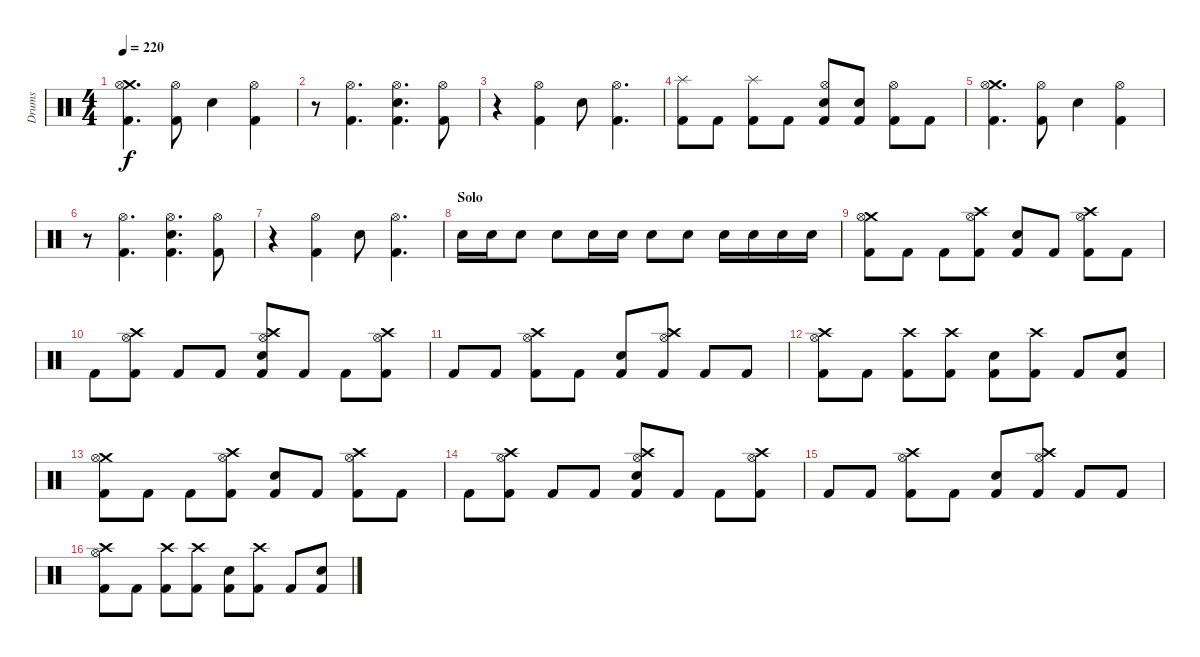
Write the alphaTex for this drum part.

\bracketExtendMode groupsimilarinstruments
\otherSystemsTrackNameOrientation horizontal
\track ("Drumkit" "Drums") {instrument percussion}
\staff {score}
\articulation defaults
\ts (4 4)
\tempo 220
\clef neutral
\ks c
("Crash medium (hit)" "Hi-Hat (open)" "Kick (hit) 2").4{d dy f beam Down} ("Hi-Hat (open)" "Kick (hit) 2").8{beam Down} "Snare (hit) 2".4{beam Down} ("Hi-Hat (open)" "Kick (hit) 2").4{beam Down} |
r.8{beam Down} ("Hi-Hat (open)" "Kick (hit) 2").4{d beam Down} ("Hi-Hat (open)" "Snare (hit) 2" "Kick (hit) 2").4{d beam Down} ("Hi-Hat (open)" "Kick (hit) 2").8{beam Down} |
r.4{beam Down} ("Hi-Hat (open)" "Kick (hit) 2").4{beam Down} "Snare (hit) 2".8{beam Down} ("Hi-Hat (open)" "Kick (hit) 2").4{d beam Down} |
("Splash (hit)" "Kick (hit) 2").8{beam Down} "Kick (hit) 2".8{beam Down} ("Splash (hit)" "Kick (hit) 2").8{beam Down} "Kick (hit) 2".8{beam Down} ("Hi-Hat (open)" "Snare (hit) 2" "Kick (hit) 2").8{beam Up} ("Snare (hit) 2" "Kick (hit) 2").8{beam Up} ("Hi-Hat (open)" "Kick (hit) 2").8{beam Down} "Kick (hit) 2".8{beam Down} |
("Crash medium (hit)" "Hi-Hat (open)" "Kick (hit) 2").4{d beam Down} ("Hi-Hat (open)" "Kick (hit) 2").8{beam Down} "Snare (hit) 2".4{beam Down} ("Hi-Hat (open)" "Kick (hit) 2").4{beam Down} |
r.8{beam Down} ("Hi-Hat (open)" "Kick (hit) 2").4{d beam Down} ("Hi-Hat (open)" "Snare (hit) 2" "Kick (hit) 2").4{d beam Down} ("Hi-Hat (open)" "Kick (hit) 2").8{beam Down} |
r.4{beam Down} ("Hi-Hat (open)" "Kick (hit) 2").4{beam Down} "Snare (hit) 2".8{beam Down} ("Hi-Hat (open)" "Kick (hit) 2").4{d beam Down} |
\section ("" "Solo")
"Snare (hit) 2".16{beam Down} "Snare (hit) 2".16{beam Down} "Snare (hit) 2".8{beam Down} "Snare (hit) 2".8{beam Down} "Snare (hit) 2".16{beam Down} "Snare (hit) 2".16{beam Down} "Snare (hit) 2".8{beam Down} "Snare (hit) 2".8{beam Down} "Snare (hit) 2".16{beam Down} "Snare (hit) 2".16{beam Down} "Snare (hit) 2".16{beam Down} "Snare (hit) 2".16{beam Down} |
("Crash medium (hit)" "Hi-Hat (open)" "Kick (hit) 2").8{beam Down} "Kick (hit) 2".8{beam Down} "Kick (hit) 2".8{beam Down} ("Crash high (hit)" "Hi-Hat (open)" "Kick (hit) 2").8{beam Down} ("Snare (hit) 2" "Kick (hit) 2").8{beam Up} "Kick (hit) 2".8{beam Up} ("Crash high (hit)" "Hi-Hat (open)" "Kick (hit) 2").8{beam Down} "Kick (hit) 2".8{beam Down} |
"Kick (hit) 2".8{beam Down} ("Crash high (hit)" "Hi-Hat (open)" "Kick (hit) 2").8{beam Down} "Kick (hit) 2".8{beam Up} "Kick (hit) 2".8{beam Up} ("Crash high (hit)" "Hi-Hat (open)" "Snare (hit) 2" "Kick (hit) 2").8{beam Up} "Kick (hit) 2".8{beam Up} "Kick (hit) 2".8{beam Down} ("Crash high (hit)" "Hi-Hat (open)" "Kick (hit) 2").8{beam Down} |
"Kick (hit) 2".8{beam Up} "Kick (hit) 2".8{beam Up} ("Crash high (hit)" "Hi-Hat (open)" "Kick (hit) 2").8{beam Down} "Kick (hit) 2".8{beam Down} ("Snare (hit) 2" "Kick (hit) 2").8{beam Up} ("Crash high (hit)" "Hi-Hat (open)" "Kick (hit) 2").8{beam Up} "Kick (hit) 2".8{beam Up} "Kick (hit) 2".8{beam Up} |
("Crash high (hit)" "Hi-Hat (open)" "Kick (hit) 2").8{beam Down} "Kick (hit) 2".8{beam Down} ("Crash high (hit)" "Kick (hit) 2").8{beam Down} ("Crash high (hit)" "Kick (hit) 2").8{beam Down} ("Snare (hit) 2" "Kick (hit) 2").8{beam Down} ("Crash high (hit)" "Kick (hit) 2").8{beam Down} "Kick (hit) 2".8{beam Up} ("Snare (hit) 2" "Kick (hit) 2").8{beam Up} |
("Crash medium (hit)" "Hi-Hat (open)" "Kick (hit) 2").8{beam Down} "Kick (hit) 2".8{beam Down} "Kick (hit) 2".8{beam Down} ("Crash high (hit)" "Hi-Hat (open)" "Kick (hit) 2").8{beam Down} ("Snare (hit) 2" "Kick (hit) 2").8{beam Up} "Kick (hit) 2".8{beam Up} ("Crash high (hit)" "Hi-Hat (open)" "Kick (hit) 2").8{beam Down} "Kick (hit) 2".8{beam Down} |
"Kick (hit) 2".8{beam Down} ("Crash high (hit)" "Hi-Hat (open)" "Kick (hit) 2").8{beam Down} "Kick (hit) 2".8{beam Up} "Kick (hit) 2".8{beam Up} ("Crash high (hit)" "Hi-Hat (open)" "Snare (hit) 2" "Kick (hit) 2").8{beam Up} "Kick (hit) 2".8{beam Up} "Kick (hit) 2".8{beam Down} ("Crash high (hit)" "Hi-Hat (open)" "Kick (hit) 2").8{beam Down} |
"Kick (hit) 2".8{beam Up} "Kick (hit) 2".8{beam Up} ("Crash high (hit)" "Hi-Hat (open)" "Kick (hit) 2").8{beam Down} "Kick (hit) 2".8{beam Down} ("Snare (hit) 2" "Kick (hit) 2").8{beam Up} ("Crash high (hit)" "Hi-Hat (open)" "Kick (hit) 2").8{beam Up} "Kick (hit) 2".8{beam Up} "Kick (hit) 2".8{beam Up} |
("Crash high (hit)" "Hi-Hat (open)" "Kick (hit) 2").8{beam Down} "Kick (hit) 2".8{beam Down} ("Crash high (hit)" "Kick (hit) 2").8{beam Down} ("Crash high (hit)" "Kick (hit) 2").8{beam Down} ("Snare (hit) 2" "Kick (hit) 2").8{beam Down} ("Crash high (hit)" "Kick (hit) 2").8{beam Down} "Kick (hit) 2".8{beam Up} ("Snare (hit) 2" "Kick (hit) 2").8{beam Up}
